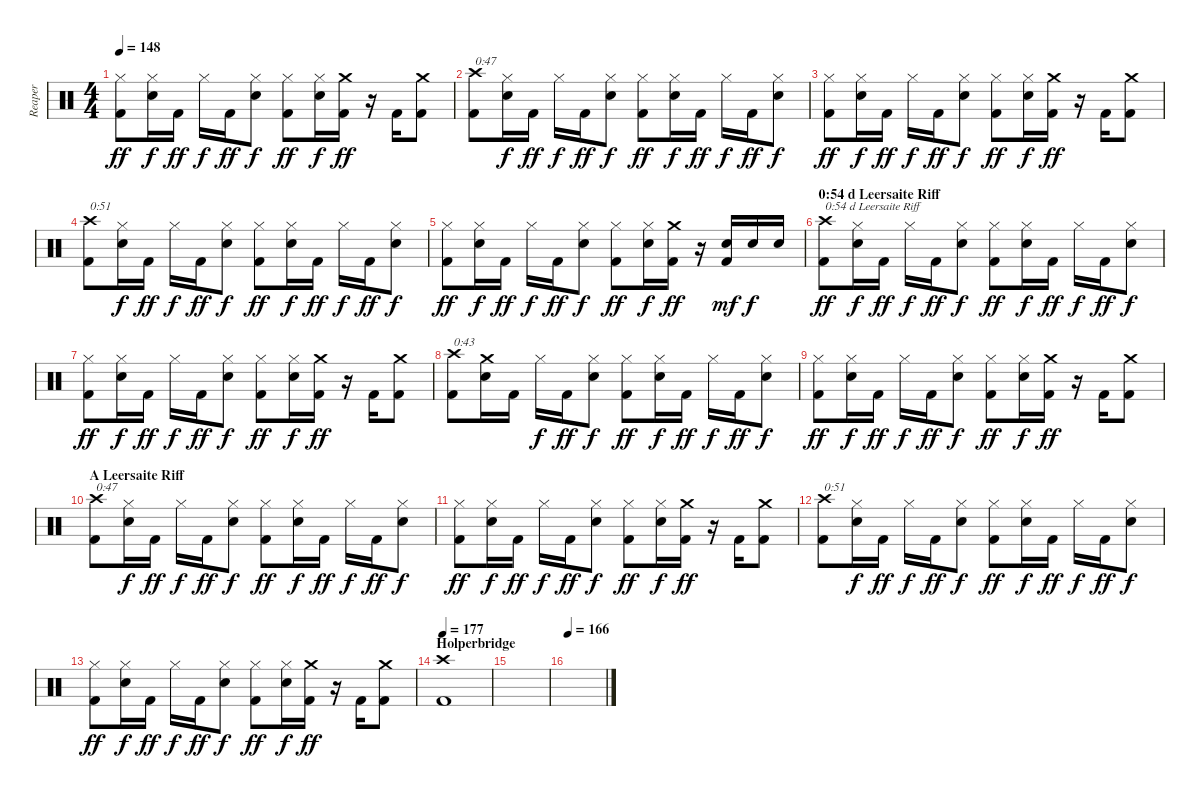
\track ("Reaper" "Reaper") {instrument percussion}
\staff {score}
\articulation defaults
\ts (4 4)
\tempo 148
\clef neutral
\ks c
("Kick (hit) 2" "Hi-Hat (closed)").8{dy ff} ("Electric Snare (hit)" "Hi-Hat (closed)").16{dy f} "Kick (hit) 2".16{dy ff} "Hi-Hat (closed)".16{dy f} "Kick (hit) 2".16{dy ff} ("Electric Snare (hit)" "Hi-Hat (closed)").8{dy f} ("Kick (hit) 2" "Hi-Hat (closed)").8{dy ff} ("Electric Snare (hit)" "Hi-Hat (closed)").16{dy f} ("Kick (hit) 2" "Crash medium (hit)").16{dy ff} r.16 "Kick (hit) 2".16 ("Kick (hit) 2" "Crash medium (hit)").8 |
("Kick (hit) 2" "Crash high (hit)").8{txt "0:47"} ("Electric Snare (hit)" "Hi-Hat (closed)").16{dy f} "Kick (hit) 2".16{dy ff} "Hi-Hat (closed)".16{dy f} "Kick (hit) 2".16{dy ff} ("Electric Snare (hit)" "Hi-Hat (closed)").8{dy f} ("Kick (hit) 2" "Hi-Hat (closed)").8{dy ff} ("Electric Snare (hit)" "Hi-Hat (closed)").16{dy f} "Kick (hit) 2".16{dy ff} "Hi-Hat (closed)".16{dy f} "Kick (hit) 2".16{dy ff} ("Electric Snare (hit)" "Hi-Hat (closed)").8{dy f} |
("Kick (hit) 2" "Hi-Hat (closed)").8{dy ff} ("Electric Snare (hit)" "Hi-Hat (closed)").16{dy f} "Kick (hit) 2".16{dy ff} "Hi-Hat (closed)".16{dy f} "Kick (hit) 2".16{dy ff} ("Electric Snare (hit)" "Hi-Hat (closed)").8{dy f} ("Kick (hit) 2" "Hi-Hat (closed)").8{dy ff} ("Electric Snare (hit)" "Hi-Hat (closed)").16{dy f} ("Kick (hit) 2" "Crash medium (hit)").16{dy ff} r.16 "Kick (hit) 2".16 ("Kick (hit) 2" "Crash medium (hit)").8 |
("Kick (hit) 2" "Crash high (hit)").8{txt "0:51"} ("Electric Snare (hit)" "Hi-Hat (closed)").16{dy f} "Kick (hit) 2".16{dy ff} "Hi-Hat (closed)".16{dy f} "Kick (hit) 2".16{dy ff} ("Electric Snare (hit)" "Hi-Hat (closed)").8{dy f} ("Kick (hit) 2" "Hi-Hat (closed)").8{dy ff} ("Electric Snare (hit)" "Hi-Hat (closed)").16{dy f} "Kick (hit) 2".16{dy ff} "Hi-Hat (closed)".16{dy f} "Kick (hit) 2".16{dy ff} ("Electric Snare (hit)" "Hi-Hat (closed)").8{dy f} |
("Kick (hit) 2" "Hi-Hat (closed)").8{dy ff} ("Electric Snare (hit)" "Hi-Hat (closed)").16{dy f} "Kick (hit) 2".16{dy ff} "Hi-Hat (closed)".16{dy f} "Kick (hit) 2".16{dy ff} ("Electric Snare (hit)" "Hi-Hat (closed)").8{dy f} ("Kick (hit) 2" "Hi-Hat (closed)").8{dy ff} ("Electric Snare (hit)" "Hi-Hat (closed)").16{dy f} ("Kick (hit) 2" "Crash medium (hit)").16{dy ff} r.16 ("Kick (hit) 2" "Electric Snare (hit)").16{dy mf} "Electric Snare (hit)".16{dy f} "Electric Snare (hit)".16 |
\section ("" "0:54 d Leersaite Riff")
("Kick (hit) 2" "Crash high (hit)").8{txt "0:54 d Leersaite Riff" dy ff} ("Electric Snare (hit)" "Hi-Hat (closed)").16{dy f} "Kick (hit) 2".16{dy ff} "Hi-Hat (closed)".16{dy f} "Kick (hit) 2".16{dy ff} ("Electric Snare (hit)" "Hi-Hat (closed)").8{dy f} ("Kick (hit) 2" "Hi-Hat (closed)").8{dy ff} ("Electric Snare (hit)" "Hi-Hat (closed)").16{dy f} "Kick (hit) 2".16{dy ff} "Hi-Hat (closed)".16{dy f} "Kick (hit) 2".16{dy ff} ("Electric Snare (hit)" "Hi-Hat (closed)").8{dy f} |
("Kick (hit) 2" "Hi-Hat (closed)").8{dy ff} ("Electric Snare (hit)" "Hi-Hat (closed)").16{dy f} "Kick (hit) 2".16{dy ff} "Hi-Hat (closed)".16{dy f} "Kick (hit) 2".16{dy ff} ("Electric Snare (hit)" "Hi-Hat (closed)").8{dy f} ("Kick (hit) 2" "Hi-Hat (closed)").8{dy ff} ("Electric Snare (hit)" "Hi-Hat (closed)").16{dy f} ("Kick (hit) 2" "Crash medium (hit)").16{dy ff} r.16 "Kick (hit) 2".16 ("Kick (hit) 2" "Crash medium (hit)").8 |
("Kick (hit) 2" "Crash high (hit)").8{txt "0:43"} ("Electric Snare (hit)" "Crash medium (hit)").16 "Kick (hit) 2".16 "Hi-Hat (closed)".16{dy f} "Kick (hit) 2".16{dy ff} ("Electric Snare (hit)" "Hi-Hat (closed)").8{dy f} ("Kick (hit) 2" "Hi-Hat (closed)").8{dy ff} ("Electric Snare (hit)" "Hi-Hat (closed)").16{dy f} "Kick (hit) 2".16{dy ff} "Hi-Hat (closed)".16{dy f} "Kick (hit) 2".16{dy ff} ("Electric Snare (hit)" "Hi-Hat (closed)").8{dy f} |
("Kick (hit) 2" "Hi-Hat (closed)").8{dy ff} ("Electric Snare (hit)" "Hi-Hat (closed)").16{dy f} "Kick (hit) 2".16{dy ff} "Hi-Hat (closed)".16{dy f} "Kick (hit) 2".16{dy ff} ("Electric Snare (hit)" "Hi-Hat (closed)").8{dy f} ("Kick (hit) 2" "Hi-Hat (closed)").8{dy ff} ("Electric Snare (hit)" "Hi-Hat (closed)").16{dy f} ("Kick (hit) 2" "Crash medium (hit)").16{dy ff} r.16 "Kick (hit) 2".16 ("Kick (hit) 2" "Crash medium (hit)").8 |
\section ("" "A Leersaite Riff")
("Kick (hit) 2" "Crash high (hit)").8{txt "0:47"} ("Electric Snare (hit)" "Hi-Hat (closed)").16{dy f} "Kick (hit) 2".16{dy ff} "Hi-Hat (closed)".16{dy f} "Kick (hit) 2".16{dy ff} ("Electric Snare (hit)" "Hi-Hat (closed)").8{dy f} ("Kick (hit) 2" "Hi-Hat (closed)").8{dy ff} ("Electric Snare (hit)" "Hi-Hat (closed)").16{dy f} "Kick (hit) 2".16{dy ff} "Hi-Hat (closed)".16{dy f} "Kick (hit) 2".16{dy ff} ("Electric Snare (hit)" "Hi-Hat (closed)").8{dy f} |
("Kick (hit) 2" "Hi-Hat (closed)").8{dy ff} ("Electric Snare (hit)" "Hi-Hat (closed)").16{dy f} "Kick (hit) 2".16{dy ff} "Hi-Hat (closed)".16{dy f} "Kick (hit) 2".16{dy ff} ("Electric Snare (hit)" "Hi-Hat (closed)").8{dy f} ("Kick (hit) 2" "Hi-Hat (closed)").8{dy ff} ("Electric Snare (hit)" "Hi-Hat (closed)").16{dy f} ("Kick (hit) 2" "Crash medium (hit)").16{dy ff} r.16 "Kick (hit) 2".16 ("Kick (hit) 2" "Crash medium (hit)").8 |
("Kick (hit) 2" "Crash high (hit)").8{txt "0:51"} ("Electric Snare (hit)" "Hi-Hat (closed)").16{dy f} "Kick (hit) 2".16{dy ff} "Hi-Hat (closed)".16{dy f} "Kick (hit) 2".16{dy ff} ("Electric Snare (hit)" "Hi-Hat (closed)").8{dy f} ("Kick (hit) 2" "Hi-Hat (closed)").8{dy ff} ("Electric Snare (hit)" "Hi-Hat (closed)").16{dy f} "Kick (hit) 2".16{dy ff} "Hi-Hat (closed)".16{dy f} "Kick (hit) 2".16{dy ff} ("Electric Snare (hit)" "Hi-Hat (closed)").8{dy f} |
("Kick (hit) 2" "Hi-Hat (closed)").8{dy ff} ("Electric Snare (hit)" "Hi-Hat (closed)").16{dy f} "Kick (hit) 2".16{dy ff} "Hi-Hat (closed)".16{dy f} "Kick (hit) 2".16{dy ff} ("Electric Snare (hit)" "Hi-Hat (closed)").8{dy f} ("Kick (hit) 2" "Hi-Hat (closed)").8{dy ff} ("Electric Snare (hit)" "Hi-Hat (closed)").16{dy f} ("Kick (hit) 2" "Crash medium (hit)").16{dy ff} r.16 "Kick (hit) 2".16 ("Kick (hit) 2" "Crash medium (hit)").8 |
\section ("" "Holperbridge")
\tempo 177
("Kick (hit) 2" "Crash high (hit)").1 |
|
\tempo 166
